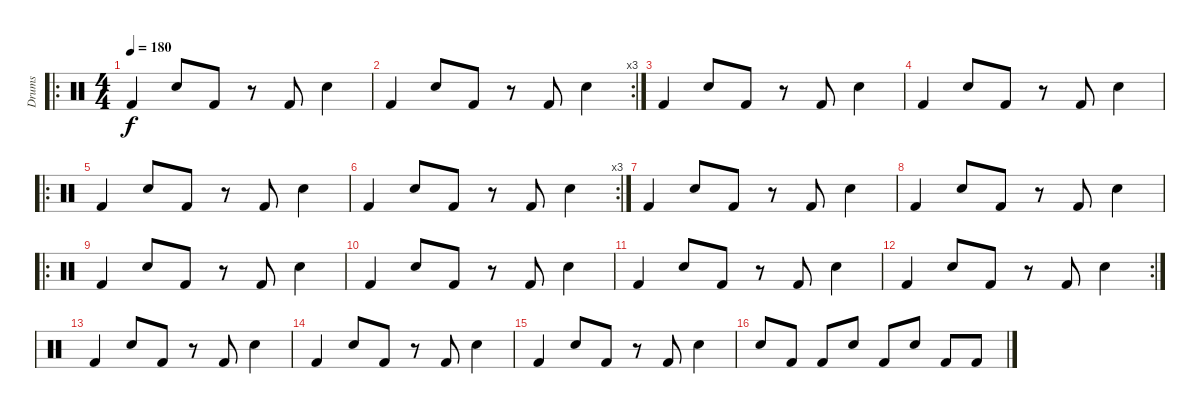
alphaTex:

\track ("Drums" "Drums") {instrument percussion}
\staff {score}
\articulation defaults
\ro
\ts (4 4)
\tempo 180
\clef neutral
\ks c "Kick (hit) 2".4{dy f} "Snare (hit) 2".8 "Kick (hit) 2".8
r.8 "Kick (hit) 2".8 "Snare (hit) 2".4 |
\rc 3 "Kick (hit) 2".4 "Snare (hit) 2".8 "Kick (hit) 2".8
r.8 "Kick (hit) 2".8 "Snare (hit) 2".4 |
"Kick (hit) 2".4 "Snare (hit) 2".8 "Kick (hit) 2".8 r.8 "Kick (hit) 2".8 "Snare (hit) 2".4 |
"Kick (hit) 2".4 "Snare (hit) 2".8 "Kick (hit) 2".8 r.8 "Kick (hit) 2".8 "Snare (hit) 2".4 |
\ro "Kick (hit) 2".4 "Snare (hit) 2".8 "Kick (hit) 2".8
r.8 "Kick (hit) 2".8 "Snare (hit) 2".4 |
\rc 3 "Kick (hit) 2".4 "Snare (hit) 2".8 "Kick (hit) 2".8
r.8 "Kick (hit) 2".8 "Snare (hit) 2".4 |
"Kick (hit) 2".4 "Snare (hit) 2".8 "Kick (hit) 2".8 r.8 "Kick (hit) 2".8 "Snare (hit) 2".4 |
"Kick (hit) 2".4 "Snare (hit) 2".8 "Kick (hit) 2".8 r.8 "Kick (hit) 2".8 "Snare (hit) 2".4 |
\ro "Kick (hit) 2".4 "Snare (hit) 2".8 "Kick (hit) 2".8
r.8 "Kick (hit) 2".8 "Snare (hit) 2".4 |
"Kick (hit) 2".4 "Snare (hit) 2".8 "Kick (hit) 2".8 r.8 "Kick (hit) 2".8 "Snare (hit) 2".4 |
"Kick (hit) 2".4 "Snare (hit) 2".8 "Kick (hit) 2".8 r.8 "Kick (hit) 2".8 "Snare (hit) 2".4 |
\rc 2 "Kick (hit) 2".4 "Snare (hit) 2".8 "Kick (hit) 2".8
r.8 "Kick (hit) 2".8 "Snare (hit) 2".4 |
"Kick (hit) 2".4 "Snare (hit) 2".8 "Kick (hit) 2".8 r.8 "Kick (hit) 2".8 "Snare (hit) 2".4 |
"Kick (hit) 2".4 "Snare (hit) 2".8 "Kick (hit) 2".8 r.8 "Kick (hit) 2".8 "Snare (hit) 2".4 |
"Kick (hit) 2".4 "Snare (hit) 2".8 "Kick (hit) 2".8 r.8 "Kick (hit) 2".8 "Snare (hit) 2".4 |
"Snare (hit) 2".8 "Kick (hit) 2".8 "Kick (hit) 2".8 "Snare (hit) 2".8 "Kick (hit) 2".8 "Snare (hit) 2".8 "Kick (hit) 2".8 "Kick (hit) 2".8
